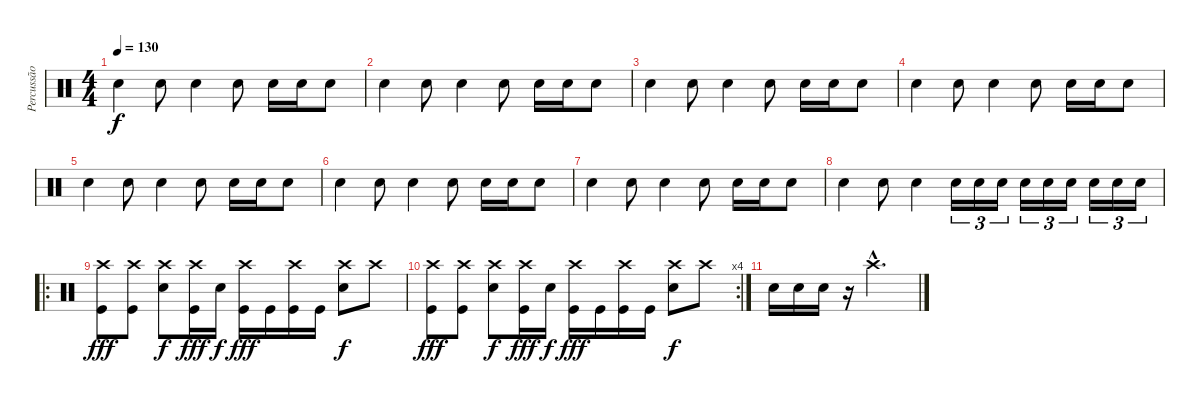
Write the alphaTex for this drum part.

\track ("Percussão" "Percussão") {instrument percussion}
\staff {score}
\articulation defaults
\ts (4 4)
\tempo 130
\clef neutral
\ks c "Snare (hit) 2".4{dy f} "Snare (hit) 2".8 "Snare (hit) 2".4 "Snare (hit) 2".8 "Snare (hit) 2".16 "Snare (hit) 2".16 "Snare (hit) 2".8
|
"Snare (hit) 2".4 "Snare (hit) 2".8 "Snare (hit) 2".4 "Snare (hit) 2".8 "Snare (hit) 2".16 "Snare (hit) 2".16 "Snare (hit) 2".8 |
"Snare (hit) 2".4 "Snare (hit) 2".8 "Snare (hit) 2".4 "Snare (hit) 2".8 "Snare (hit) 2".16 "Snare (hit) 2".16 "Snare (hit) 2".8 |
"Snare (hit) 2".4 "Snare (hit) 2".8 "Snare (hit) 2".4 "Snare (hit) 2".8 "Snare (hit) 2".16 "Snare (hit) 2".16 "Snare (hit) 2".8 |
"Snare (hit) 2".4 "Snare (hit) 2".8 "Snare (hit) 2".4 "Snare (hit) 2".8 "Snare (hit) 2".16 "Snare (hit) 2".16 "Snare (hit) 2".8 |
"Snare (hit) 2".4 "Snare (hit) 2".8 "Snare (hit) 2".4 "Snare (hit) 2".8 "Snare (hit) 2".16 "Snare (hit) 2".16 "Snare (hit) 2".8 |
"Snare (hit) 2".4 "Snare (hit) 2".8 "Snare (hit) 2".4 "Snare (hit) 2".8 "Snare (hit) 2".16 "Snare (hit) 2".16 "Snare (hit) 2".8 |
"Snare (hit) 2".4 "Snare (hit) 2".8 "Snare (hit) 2".4 "Snare (hit) 2".16{tu (3 2)} "Snare (hit) 2".16{tu (3 2)} "Snare (hit) 2".16{tu (3 2)} "Snare (hit) 2".16{tu (3 2)} "Snare (hit) 2".16{tu (3 2)} "Snare (hit) 2".16{tu (3 2)} "Snare (hit) 2".16{tu (3 2)} "Snare (hit) 2".16{tu (3 2)} "Snare (hit) 2".16{tu (3 2)} |
\ro
("Crash high (hit)" "Kick (hit)").8{dy fff} ("Crash high (hit)" "Kick (hit)").8 ("Crash high (hit)" "Snare (hit) 2").8{dy f} ("Crash high (hit)" "Kick (hit)").16{dy fff} "Snare (hit) 2".16{dy f} ("Crash high (hit)" "Kick (hit)").16{dy fff} "Kick (hit)".16 ("Crash high (hit)" "Kick (hit)").16 "Kick (hit)".16 ("Crash high (hit)" "Snare (hit) 2").8{dy f} "Crash high (hit)".8 |
\rc 4
("Crash high (hit)" "Kick (hit)").8{dy fff} ("Crash high (hit)" "Kick (hit)").8 ("Crash high (hit)" "Snare (hit) 2").8{dy f} ("Crash high (hit)" "Kick (hit)").16{dy fff} "Snare (hit) 2".16{dy f} ("Crash high (hit)" "Kick (hit)").16{dy fff} "Kick (hit)".16 ("Crash high (hit)" "Kick (hit)").16 "Kick (hit)".16 ("Crash high (hit)" "Snare (hit) 2").8{dy f} "Crash high (hit)".8 |
"Snare (hit) 2".16 "Snare (hit) 2".16 "Snare (hit) 2".16 r.16 "Crash high (hit)"{hac}.2{d}
